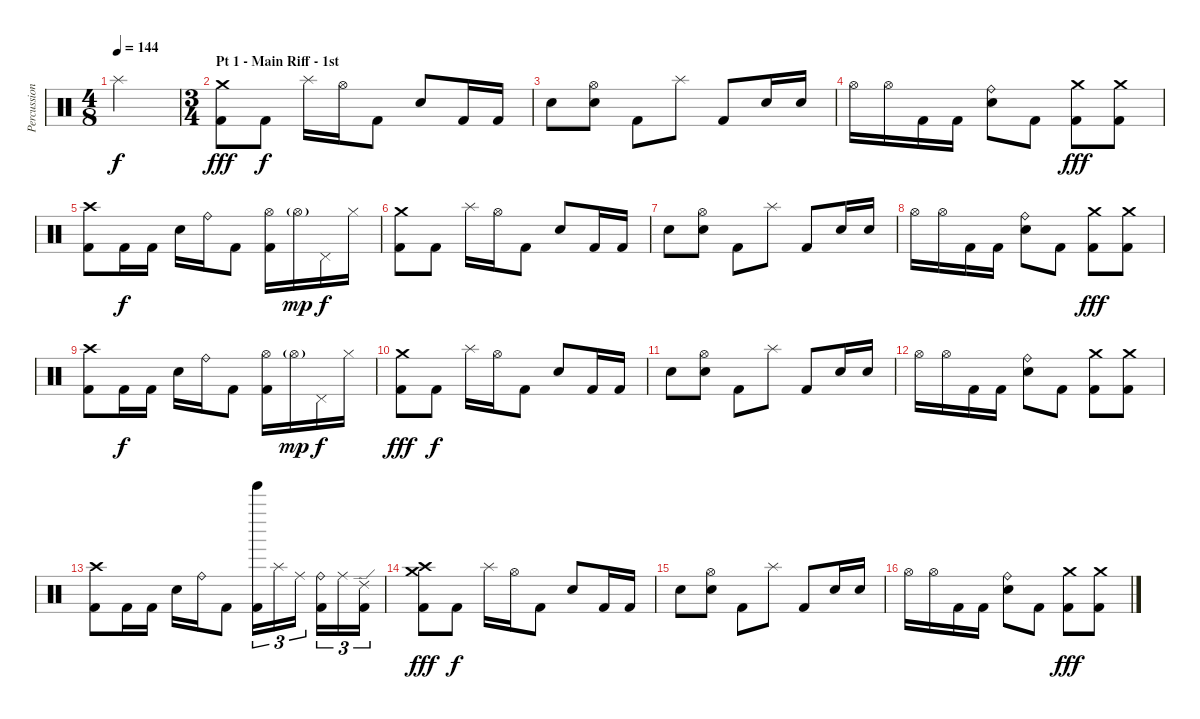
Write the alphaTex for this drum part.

\track ("Percussion" "Percussion") {instrument percussion}
\staff {score}
\articulation defaults
\ts (4 8)
\tempo 144
\clef neutral
\ks c "Splash (hit)".2{dy f}
|
\ts (3 4)
\section ("" "Pt 1 - Main Riff - 1st ")
("Crash medium (hit)" "Kick (hit) 2").8{dy fff} "Kick (hit) 2".8{dy f} "Splash (hit)".16 "Hi-Hat (open)".16 "Kick (hit) 2".8 "Electric Snare (hit)".8 "Kick (hit) 2".16 "Kick (hit) 2".16 |
"Electric Snare (hit)".8 ("Hi-Hat (open)" "Electric Snare (hit)").8 "Kick (hit) 2".8 "Splash (hit)".8 "Kick (hit) 2".8 "Electric Snare (hit)".16 "Electric Snare (hit)".16 |
"Hi-Hat (open)".16 "Hi-Hat (open)".16 "Kick (hit) 2".16 "Kick (hit) 2".16 ("Ride (bell)" "Electric Snare (hit)").8 "Kick (hit) 2".8 ("Crash medium (hit)" "Kick (hit) 2").8{dy fff} ("Crash medium (hit)" "Kick (hit) 2").8 |
("Crash high (hit)" "Kick (hit) 2").8 "Kick (hit) 2".16{dy f} "Kick (hit) 2".16 "Electric Snare (hit)".16 "Ride (bell)".16 "Kick (hit) 2".8 ("Hi-Hat (open)" "Kick (hit) 2").16 "Hi-Hat (open)"{g}.16{dy mp} "Pedal Hi-Hat (hit)".16{dy f} "Hi-Hat (closed)".16 |
("Crash medium (hit)" "Kick (hit) 2").8 "Kick (hit) 2".8 "Splash (hit)".16 "Hi-Hat (open)".16 "Kick (hit) 2".8 "Electric Snare (hit)".8 "Kick (hit) 2".16 "Kick (hit) 2".16 |
"Electric Snare (hit)".8 ("Hi-Hat (open)" "Electric Snare (hit)").8 "Kick (hit) 2".8 "Splash (hit)".8 "Kick (hit) 2".8 "Electric Snare (hit)".16 "Electric Snare (hit)".16 |
"Hi-Hat (open)".16 "Hi-Hat (open)".16 "Kick (hit) 2".16 "Kick (hit) 2".16 ("Ride (bell)" "Electric Snare (hit)").8 "Kick (hit) 2".8 ("Crash medium (hit)" "Kick (hit) 2").8{dy fff} ("Crash medium (hit)" "Kick (hit) 2").8 |
("Crash high (hit)" "Kick (hit) 2").8 "Kick (hit) 2".16{dy f} "Kick (hit) 2".16 "Electric Snare (hit)".16 "Ride (bell)".16 "Kick (hit) 2".8 ("Hi-Hat (open)" "Kick (hit) 2").16 "Hi-Hat (open)"{g}.16{dy mp} "Pedal Hi-Hat (hit)".16{dy f} "Hi-Hat (closed)".16 |
("Crash medium (hit)" "Kick (hit) 2").8{dy fff} "Kick (hit) 2".8{dy f} "Splash (hit)".16 "Hi-Hat (open)".16 "Kick (hit) 2".8 "Electric Snare (hit)".8 "Kick (hit) 2".16 "Kick (hit) 2".16 |
"Electric Snare (hit)".8 ("Hi-Hat (open)" "Electric Snare (hit)").8 "Kick (hit) 2".8 "Splash (hit)".8 "Kick (hit) 2".8 "Electric Snare (hit)".16 "Electric Snare (hit)".16 |
"Hi-Hat (open)".16 "Hi-Hat (open)".16 "Kick (hit) 2".16 "Kick (hit) 2".16 ("Ride (bell)" "Electric Snare (hit)").8 "Kick (hit) 2".8 ("Crash medium (hit)" "Kick (hit) 2").8 ("Crash medium (hit)" "Kick (hit) 2").8 |
("Crash high (hit)" "Kick (hit) 2").8 "Kick (hit) 2".16 "Kick (hit) 2".16 "Electric Snare (hit)".16 "Ride (bell)".16 "Kick (hit) 2".8 ("Tinkle Bell (hit)" "Kick (hit) 2").16{tu (3 2)} "Splash (hit)".16{tu (3 2)} "Ride (middle)".16{tu (3 2)} ("Ride (bell)" "Kick (hit) 2").16{tu (3 2)} "Ride (middle)".16{tu (3 2)} ("Ride (edge) 2" "Kick (hit) 2").16{tu (3 2)} |
("Crash medium (hit)" "Crash high (hit)" "Kick (hit) 2").8{dy fff} "Kick (hit) 2".8{dy f} "Splash (hit)".16 "Hi-Hat (open)".16 "Kick (hit) 2".8 "Electric Snare (hit)".8 "Kick (hit) 2".16 "Kick (hit) 2".16 |
"Electric Snare (hit)".8 ("Hi-Hat (open)" "Electric Snare (hit)").8 "Kick (hit) 2".8 "Splash (hit)".8 "Kick (hit) 2".8 "Electric Snare (hit)".16 "Electric Snare (hit)".16 |
"Hi-Hat (open)".16 "Hi-Hat (open)".16 "Kick (hit) 2".16 "Kick (hit) 2".16 ("Ride (bell)" "Electric Snare (hit)").8 "Kick (hit) 2".8 ("Crash medium (hit)" "Kick (hit) 2").8{dy fff} ("Crash medium (hit)" "Kick (hit) 2").8
